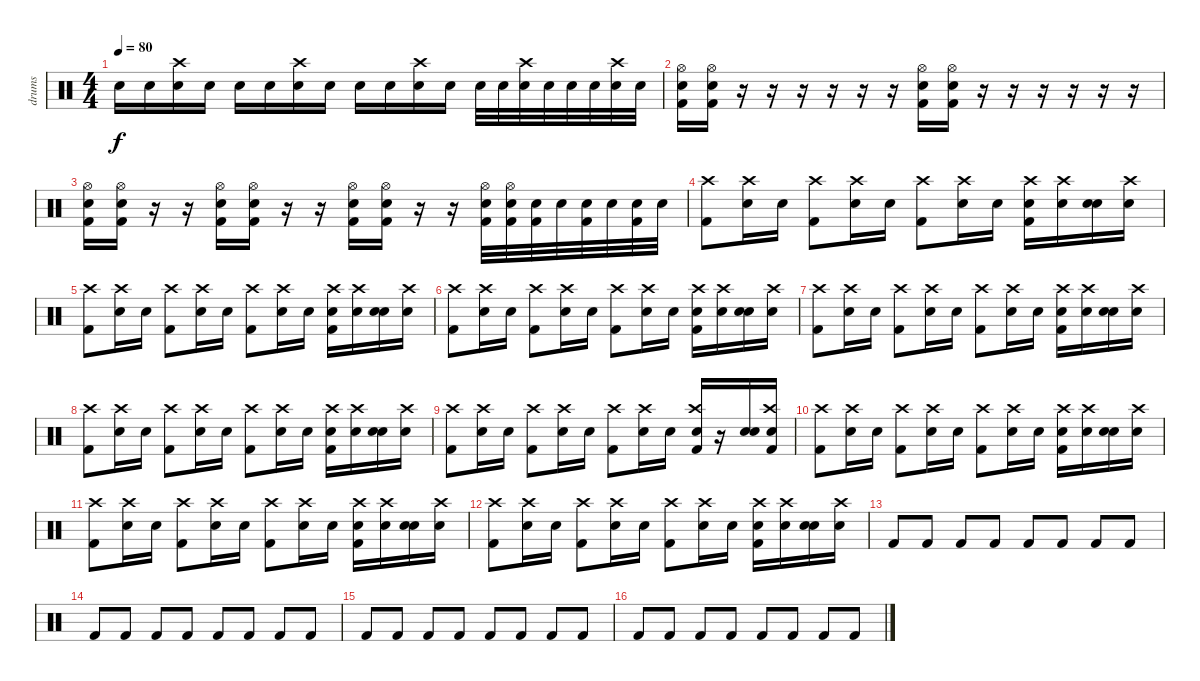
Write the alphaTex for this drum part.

\track ("drums" "drums") {instrument percussion}
\staff {score}
\articulation defaults
\ts (4 4)
\tempo 80
\clef neutral
\ks c "Electric Snare (hit)".16{dy f} "Electric Snare (hit)".16
("Crash high (hit)" "Electric Snare (hit)").16 "Electric Snare (hit)".16 "Electric Snare (hit)".16 "Electric Snare (hit)".16 ("Crash high (hit)" "Electric Snare (hit)").16 "Electric Snare (hit)".16 "Electric Snare (hit)".16 "Electric Snare (hit)".16 ("Crash high (hit)" "Electric Snare (hit)").16 "Electric Snare (hit)".16 "Electric Snare (hit)".32 "Electric Snare (hit)".32 ("Crash high (hit)" "Electric Snare (hit)").32 "Electric Snare (hit)".32 "Electric Snare (hit)".32 "Electric Snare (hit)".32 ("Crash high (hit)" "Electric Snare (hit)").32 "Electric Snare (hit)".32 |
("Kick (hit) 2" "Hi-Hat (open)" "Electric Snare (hit)").16 ("Kick (hit) 2" "Hi-Hat (open)" "Electric Snare (hit)").16 r.16 r.16 r.16 r.16 r.16 r.16 ("Kick (hit) 2" "Hi-Hat (open)" "Electric Snare (hit)").16 ("Kick (hit) 2" "Hi-Hat (open)" "Electric Snare (hit)").16 r.16 r.16 r.16 r.16 r.16 r.16 |
("Kick (hit) 2" "Hi-Hat (open)" "Electric Snare (hit)").16 ("Kick (hit) 2" "Hi-Hat (open)" "Electric Snare (hit)").16 r.16 r.16 ("Kick (hit) 2" "Hi-Hat (open)" "Electric Snare (hit)").16 ("Kick (hit) 2" "Hi-Hat (open)" "Electric Snare (hit)").16 r.16 r.16 ("Kick (hit) 2" "Hi-Hat (open)" "Electric Snare (hit)").16 ("Kick (hit) 2" "Hi-Hat (open)" "Electric Snare (hit)").16 r.16 r.16 ("Kick (hit) 2" "Hi-Hat (open)" "Electric Snare (hit)").32 ("Kick (hit) 2" "Hi-Hat (open)" "Electric Snare (hit)").32 ("Kick (hit) 2" "Electric Snare (hit)").32 "Electric Snare (hit)".32 ("Kick (hit) 2" "Electric Snare (hit)").32 "Electric Snare (hit)".32 ("Kick (hit) 2" "Electric Snare (hit)").32 "Electric Snare (hit)".32 |
("Kick (hit) 2" "Crash high (hit)").8 ("Electric Snare (hit)" "Crash high (hit)").16 "Electric Snare (hit)".16 ("Kick (hit) 2" "Crash high (hit)").8 ("Electric Snare (hit)" "Crash high (hit)").16 "Electric Snare (hit)".16 ("Kick (hit) 2" "Crash high (hit)").8 ("Electric Snare (hit)" "Crash high (hit)").16 "Electric Snare (hit)".16 ("Kick (hit) 2" "Electric Snare (hit)" "Crash high (hit)").16 ("Electric Snare (hit)" "Crash high (hit)").16 ("Electric Snare (hit)" "Electric Snare (hit)").16 ("Electric Snare (hit)" "Crash high (hit)").16 |
("Kick (hit) 2" "Crash high (hit)").8 ("Electric Snare (hit)" "Crash high (hit)").16 "Electric Snare (hit)".16 ("Kick (hit) 2" "Crash high (hit)").8 ("Electric Snare (hit)" "Crash high (hit)").16 "Electric Snare (hit)".16 ("Kick (hit) 2" "Crash high (hit)").8 ("Electric Snare (hit)" "Crash high (hit)").16 "Electric Snare (hit)".16 ("Kick (hit) 2" "Electric Snare (hit)" "Crash high (hit)").16 ("Electric Snare (hit)" "Crash high (hit)").16 ("Electric Snare (hit)" "Electric Snare (hit)").16 ("Electric Snare (hit)" "Crash high (hit)").16 |
("Kick (hit) 2" "Crash high (hit)").8 ("Electric Snare (hit)" "Crash high (hit)").16 "Electric Snare (hit)".16 ("Kick (hit) 2" "Crash high (hit)").8 ("Electric Snare (hit)" "Crash high (hit)").16 "Electric Snare (hit)".16 ("Kick (hit) 2" "Crash high (hit)").8 ("Electric Snare (hit)" "Crash high (hit)").16 "Electric Snare (hit)".16 ("Kick (hit) 2" "Electric Snare (hit)" "Crash high (hit)").16 ("Electric Snare (hit)" "Crash high (hit)").16 ("Electric Snare (hit)" "Electric Snare (hit)").16 ("Electric Snare (hit)" "Crash high (hit)").16 |
("Kick (hit) 2" "Crash high (hit)").8 ("Electric Snare (hit)" "Crash high (hit)").16 "Electric Snare (hit)".16 ("Kick (hit) 2" "Crash high (hit)").8 ("Electric Snare (hit)" "Crash high (hit)").16 "Electric Snare (hit)".16 ("Kick (hit) 2" "Crash high (hit)").8 ("Electric Snare (hit)" "Crash high (hit)").16 "Electric Snare (hit)".16 ("Kick (hit) 2" "Electric Snare (hit)" "Crash high (hit)").16 ("Electric Snare (hit)" "Crash high (hit)").16 ("Electric Snare (hit)" "Electric Snare (hit)").16 ("Electric Snare (hit)" "Crash high (hit)").16 |
("Kick (hit) 2" "Crash high (hit)").8 ("Electric Snare (hit)" "Crash high (hit)").16 "Electric Snare (hit)".16 ("Kick (hit) 2" "Crash high (hit)").8 ("Electric Snare (hit)" "Crash high (hit)").16 "Electric Snare (hit)".16 ("Kick (hit) 2" "Crash high (hit)").8 ("Electric Snare (hit)" "Crash high (hit)").16 "Electric Snare (hit)".16 ("Kick (hit) 2" "Electric Snare (hit)" "Crash high (hit)").16 ("Electric Snare (hit)" "Crash high (hit)").16 ("Electric Snare (hit)" "Electric Snare (hit)").16 ("Electric Snare (hit)" "Crash high (hit)").16 |
("Kick (hit) 2" "Crash high (hit)").8 ("Electric Snare (hit)" "Crash high (hit)").16 "Electric Snare (hit)".16 ("Kick (hit) 2" "Crash high (hit)").8 ("Electric Snare (hit)" "Crash high (hit)").16 "Electric Snare (hit)".16 ("Kick (hit) 2" "Crash high (hit)").8 ("Electric Snare (hit)" "Crash high (hit)").16 "Electric Snare (hit)".16 ("Kick (hit) 2" "Electric Snare (hit)" "Crash high (hit)").16 r.16 ("Electric Snare (hit)" "Electric Snare (hit)").16 ("Kick (hit) 2" "Electric Snare (hit)" "Crash high (hit)").16 |
("Kick (hit) 2" "Crash high (hit)").8 ("Electric Snare (hit)" "Crash high (hit)").16 "Electric Snare (hit)".16 ("Kick (hit) 2" "Crash high (hit)").8 ("Electric Snare (hit)" "Crash high (hit)").16 "Electric Snare (hit)".16 ("Kick (hit) 2" "Crash high (hit)").8 ("Electric Snare (hit)" "Crash high (hit)").16 "Electric Snare (hit)".16 ("Kick (hit) 2" "Electric Snare (hit)" "Crash high (hit)").16 ("Electric Snare (hit)" "Crash high (hit)").16 ("Electric Snare (hit)" "Electric Snare (hit)").16 ("Electric Snare (hit)" "Crash high (hit)").16 |
("Kick (hit) 2" "Crash high (hit)").8 ("Electric Snare (hit)" "Crash high (hit)").16 "Electric Snare (hit)".16 ("Kick (hit) 2" "Crash high (hit)").8 ("Electric Snare (hit)" "Crash high (hit)").16 "Electric Snare (hit)".16 ("Kick (hit) 2" "Crash high (hit)").8 ("Electric Snare (hit)" "Crash high (hit)").16 "Electric Snare (hit)".16 ("Kick (hit) 2" "Electric Snare (hit)" "Crash high (hit)").16 ("Electric Snare (hit)" "Crash high (hit)").16 ("Electric Snare (hit)" "Electric Snare (hit)").16 ("Electric Snare (hit)" "Crash high (hit)").16 |
("Kick (hit) 2" "Crash high (hit)").8 ("Electric Snare (hit)" "Crash high (hit)").16 "Electric Snare (hit)".16 ("Kick (hit) 2" "Crash high (hit)").8 ("Electric Snare (hit)" "Crash high (hit)").16 "Electric Snare (hit)".16 ("Kick (hit) 2" "Crash high (hit)").8 ("Electric Snare (hit)" "Crash high (hit)").16 "Electric Snare (hit)".16 ("Kick (hit) 2" "Electric Snare (hit)" "Crash high (hit)").16 ("Electric Snare (hit)" "Crash high (hit)").16 ("Electric Snare (hit)" "Electric Snare (hit)").16 ("Electric Snare (hit)" "Crash high (hit)").16 |
"Kick (hit) 2".8 "Kick (hit) 2".8 "Kick (hit) 2".8 "Kick (hit) 2".8 "Kick (hit) 2".8 "Kick (hit) 2".8 "Kick (hit) 2".8 "Kick (hit) 2".8 |
"Kick (hit) 2".8 "Kick (hit) 2".8 "Kick (hit) 2".8 "Kick (hit) 2".8 "Kick (hit) 2".8 "Kick (hit) 2".8 "Kick (hit) 2".8 "Kick (hit) 2".8 |
"Kick (hit) 2".8 "Kick (hit) 2".8 "Kick (hit) 2".8 "Kick (hit) 2".8 "Kick (hit) 2".8 "Kick (hit) 2".8 "Kick (hit) 2".8 "Kick (hit) 2".8 |
"Kick (hit) 2".8 "Kick (hit) 2".8 "Kick (hit) 2".8 "Kick (hit) 2".8 "Kick (hit) 2".8 "Kick (hit) 2".8 "Kick (hit) 2".8 "Kick (hit) 2".8
